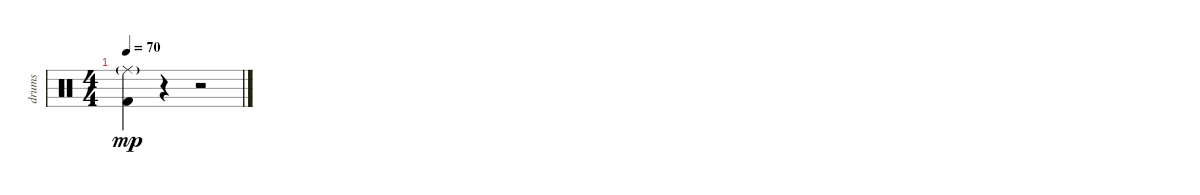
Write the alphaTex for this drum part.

\track ("drums" "drums") {instrument percussion}
\staff {score}
\articulation defaults
\ts (4 4)
\tempo 70
\clef neutral
\ks c
("Kick (hit) 2" "Ride (middle)"{g}).4{dy mp} r.4 r.2
